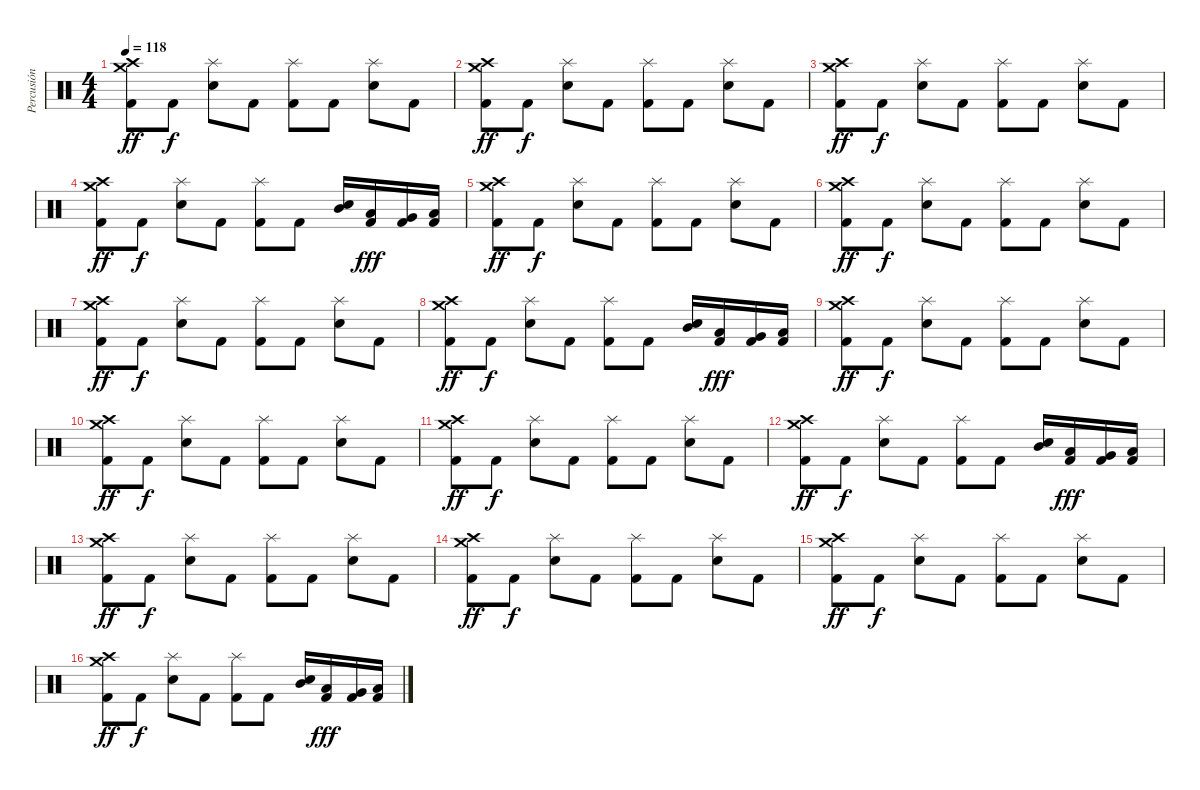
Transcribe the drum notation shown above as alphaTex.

\track ("Percusión" "Percusión") {instrument percussion}
\staff {score}
\articulation defaults
\ts (4 4)
\tempo 118
\clef neutral
\ks c
("Kick (hit) 2" "Crash medium (hit)" "Crash high (hit)").8{dy ff} "Kick (hit) 2".8{dy f} ("Snare (hit) 2" "Splash (hit)").8 "Kick (hit) 2".8 ("Kick (hit) 2" "Splash (hit)").8 "Kick (hit) 2".8 ("Snare (hit) 2" "Splash (hit)").8 "Kick (hit) 2".8 |
("Kick (hit) 2" "Crash medium (hit)" "Crash high (hit)").8{dy ff} "Kick (hit) 2".8{dy f} ("Snare (hit) 2" "Splash (hit)").8 "Kick (hit) 2".8 ("Kick (hit) 2" "Splash (hit)").8 "Kick (hit) 2".8 ("Snare (hit) 2" "Splash (hit)").8 "Kick (hit) 2".8 |
("Kick (hit) 2" "Crash medium (hit)" "Crash high (hit)").8{dy ff} "Kick (hit) 2".8{dy f} ("Snare (hit) 2" "Splash (hit)").8 "Kick (hit) 2".8 ("Kick (hit) 2" "Splash (hit)").8 "Kick (hit) 2".8 ("Snare (hit) 2" "Splash (hit)").8 "Kick (hit) 2".8 |
("Kick (hit) 2" "Crash medium (hit)" "Crash high (hit)").8{dy ff} "Kick (hit) 2".8{dy f} ("Snare (hit) 2" "Splash (hit)").8 "Kick (hit) 2".8 ("Kick (hit) 2" "Splash (hit)").8 "Kick (hit) 2".8 ("Snare (hit) 2" "Mid Tom (hit)").16 ("Low Tom (hit)" "Kick (hit) 2").16{dy fff} ("Very Low Tom (hit)" "Kick (hit) 2").16 ("Low Floor Tom (hit)" "Kick (hit) 2").16 |
("Kick (hit) 2" "Crash medium (hit)" "Crash high (hit)").8{dy ff} "Kick (hit) 2".8{dy f} ("Snare (hit) 2" "Splash (hit)").8 "Kick (hit) 2".8 ("Kick (hit) 2" "Splash (hit)").8 "Kick (hit) 2".8 ("Snare (hit) 2" "Splash (hit)").8 "Kick (hit) 2".8 |
("Kick (hit) 2" "Crash medium (hit)" "Crash high (hit)").8{dy ff} "Kick (hit) 2".8{dy f} ("Snare (hit) 2" "Splash (hit)").8 "Kick (hit) 2".8 ("Kick (hit) 2" "Splash (hit)").8 "Kick (hit) 2".8 ("Snare (hit) 2" "Splash (hit)").8 "Kick (hit) 2".8 |
("Kick (hit) 2" "Crash medium (hit)" "Crash high (hit)").8{dy ff} "Kick (hit) 2".8{dy f} ("Snare (hit) 2" "Splash (hit)").8 "Kick (hit) 2".8 ("Kick (hit) 2" "Splash (hit)").8 "Kick (hit) 2".8 ("Snare (hit) 2" "Splash (hit)").8 "Kick (hit) 2".8 |
("Kick (hit) 2" "Crash medium (hit)" "Crash high (hit)").8{dy ff} "Kick (hit) 2".8{dy f} ("Snare (hit) 2" "Splash (hit)").8 "Kick (hit) 2".8 ("Kick (hit) 2" "Splash (hit)").8 "Kick (hit) 2".8 ("Snare (hit) 2" "Mid Tom (hit)").16 ("Low Tom (hit)" "Kick (hit) 2").16{dy fff} ("Very Low Tom (hit)" "Kick (hit) 2").16 ("Low Floor Tom (hit)" "Kick (hit) 2").16 |
("Kick (hit) 2" "Crash medium (hit)" "Crash high (hit)").8{dy ff} "Kick (hit) 2".8{dy f} ("Snare (hit) 2" "Splash (hit)").8 "Kick (hit) 2".8 ("Kick (hit) 2" "Splash (hit)").8 "Kick (hit) 2".8 ("Snare (hit) 2" "Splash (hit)").8 "Kick (hit) 2".8 |
("Kick (hit) 2" "Crash medium (hit)" "Crash high (hit)").8{dy ff} "Kick (hit) 2".8{dy f} ("Snare (hit) 2" "Splash (hit)").8 "Kick (hit) 2".8 ("Kick (hit) 2" "Splash (hit)").8 "Kick (hit) 2".8 ("Snare (hit) 2" "Splash (hit)").8 "Kick (hit) 2".8 |
("Kick (hit) 2" "Crash medium (hit)" "Crash high (hit)").8{dy ff} "Kick (hit) 2".8{dy f} ("Snare (hit) 2" "Splash (hit)").8 "Kick (hit) 2".8 ("Kick (hit) 2" "Splash (hit)").8 "Kick (hit) 2".8 ("Snare (hit) 2" "Splash (hit)").8 "Kick (hit) 2".8 |
("Kick (hit) 2" "Crash medium (hit)" "Crash high (hit)").8{dy ff} "Kick (hit) 2".8{dy f} ("Snare (hit) 2" "Splash (hit)").8 "Kick (hit) 2".8 ("Kick (hit) 2" "Splash (hit)").8 "Kick (hit) 2".8 ("Snare (hit) 2" "Mid Tom (hit)").16 ("Low Tom (hit)" "Kick (hit) 2").16{dy fff} ("Very Low Tom (hit)" "Kick (hit) 2").16 ("Low Floor Tom (hit)" "Kick (hit) 2").16 |
("Kick (hit) 2" "Crash medium (hit)" "Crash high (hit)").8{dy ff} "Kick (hit) 2".8{dy f} ("Snare (hit) 2" "Splash (hit)").8 "Kick (hit) 2".8 ("Kick (hit) 2" "Splash (hit)").8 "Kick (hit) 2".8 ("Snare (hit) 2" "Splash (hit)").8 "Kick (hit) 2".8 |
("Kick (hit) 2" "Crash medium (hit)" "Crash high (hit)").8{dy ff} "Kick (hit) 2".8{dy f} ("Snare (hit) 2" "Splash (hit)").8 "Kick (hit) 2".8 ("Kick (hit) 2" "Splash (hit)").8 "Kick (hit) 2".8 ("Snare (hit) 2" "Splash (hit)").8 "Kick (hit) 2".8 |
("Kick (hit) 2" "Crash medium (hit)" "Crash high (hit)").8{dy ff} "Kick (hit) 2".8{dy f} ("Snare (hit) 2" "Splash (hit)").8 "Kick (hit) 2".8 ("Kick (hit) 2" "Splash (hit)").8 "Kick (hit) 2".8 ("Snare (hit) 2" "Splash (hit)").8 "Kick (hit) 2".8 |
("Kick (hit) 2" "Crash medium (hit)" "Crash high (hit)").8{dy ff} "Kick (hit) 2".8{dy f} ("Snare (hit) 2" "Splash (hit)").8 "Kick (hit) 2".8 ("Kick (hit) 2" "Splash (hit)").8 "Kick (hit) 2".8 ("Snare (hit) 2" "Mid Tom (hit)").16 ("Low Tom (hit)" "Kick (hit) 2").16{dy fff} ("Very Low Tom (hit)" "Kick (hit) 2").16 ("Low Floor Tom (hit)" "Kick (hit) 2").16
